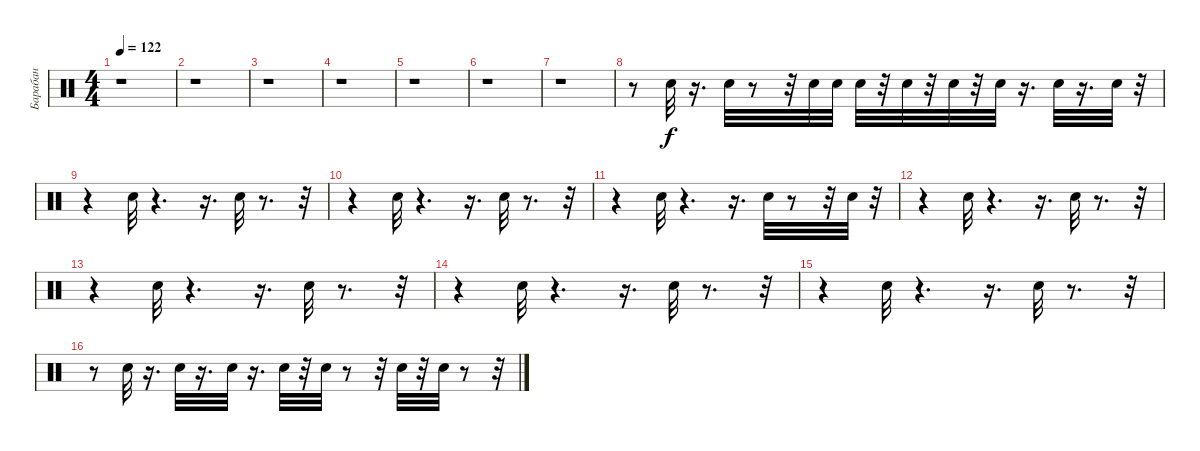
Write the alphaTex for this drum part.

\track ("Барабан" "Барабан") {instrument percussion}
\staff {score}
\articulation defaults
\ts (4 4)
\tempo 122
\clef neutral
\ks c
r.1{dy f} |
r.1 |
r.1 |
r.1 |
r.1 |
r.1 |
r.1 |
r.8 "Snare (hit) 2".32 r.16{d} "Snare (hit) 2".32 r.8 r.32 "Snare (hit) 2".32 "Snare (hit) 2".32 "Snare (hit) 2".32 r.32 "Snare (hit) 2".32 r.32 "Snare (hit) 2".32 r.32 "Snare (hit) 2".32 r.16{d} "Snare (hit) 2".32 r.16{d} "Snare (hit) 2".32 r.32 |
r.4 "Snare (hit) 2".32 r.4{d} r.16{d} "Snare (hit) 2".32 r.8{d} r.32 |
r.4 "Snare (hit) 2".32 r.4{d} r.16{d} "Snare (hit) 2".32 r.8{d} r.32 |
r.4 "Snare (hit) 2".32 r.4{d} r.16{d} "Snare (hit) 2".32 r.8 r.32 "Snare (hit) 2".32 r.32 |
r.4 "Snare (hit) 2".32 r.4{d} r.16{d} "Snare (hit) 2".32 r.8{d} r.32 |
r.4 "Snare (hit) 2".32 r.4{d} r.16{d} "Snare (hit) 2".32 r.8{d} r.32 |
r.4 "Snare (hit) 2".32 r.4{d} r.16{d} "Snare (hit) 2".32 r.8{d} r.32 |
r.4 "Snare (hit) 2".32 r.4{d} r.16{d} "Snare (hit) 2".32 r.8{d} r.32 |
r.8 "Snare (hit) 2".32 r.16{d} "Snare (hit) 2".32 r.16{d} "Snare (hit) 2".32 r.16{d} "Snare (hit) 2".32 r.32 "Snare (hit) 2".32 r.8 r.32 "Snare (hit) 2".32 r.32 "Snare (hit) 2".32 r.8 r.32
